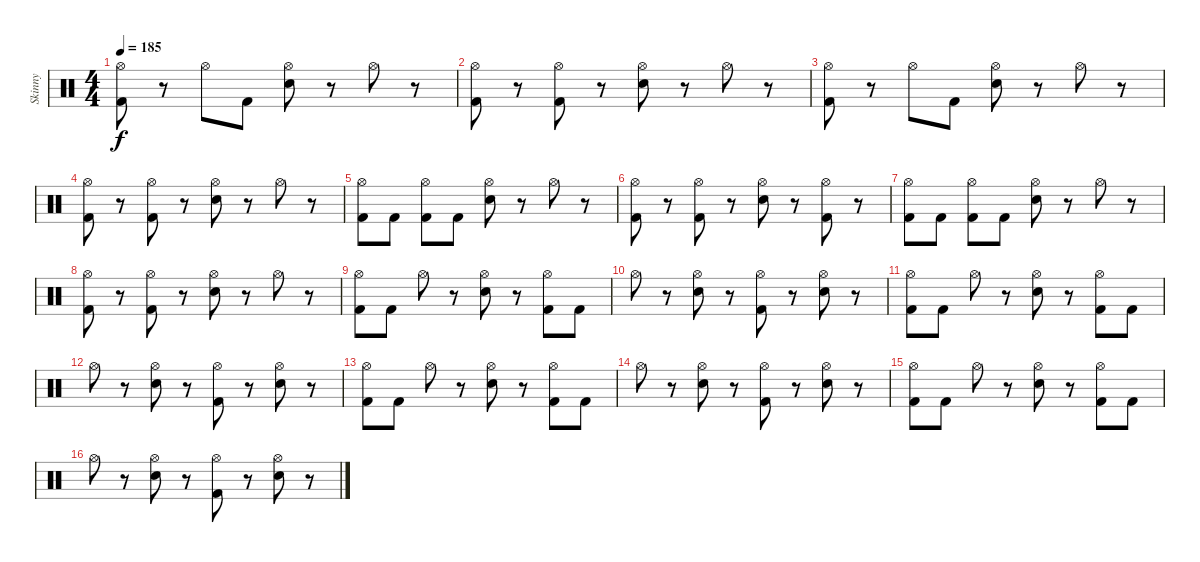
\track ("Skinny" "Skinny") {instrument percussion}
\staff {score}
\articulation defaults
\ts (4 4)
\tempo 185
\clef neutral
\ks c
("Hi-Hat (open)" "Kick (hit) 2").8{dy f} r.8 "Hi-Hat (open)".8 "Kick (hit) 2".8 ("Hi-Hat (open)" "Snare (hit) 2").8 r.8 "Hi-Hat (open)".8 r.8 |
("Hi-Hat (open)" "Kick (hit) 2").8 r.8 ("Hi-Hat (open)" "Kick (hit) 2").8 r.8 ("Hi-Hat (open)" "Snare (hit) 2").8 r.8 "Hi-Hat (open)".8 r.8 |
("Hi-Hat (open)" "Kick (hit) 2").8 r.8 "Hi-Hat (open)".8 "Kick (hit) 2".8 ("Hi-Hat (open)" "Snare (hit) 2").8 r.8 "Hi-Hat (open)".8 r.8 |
("Hi-Hat (open)" "Kick (hit) 2").8 r.8 ("Hi-Hat (open)" "Kick (hit) 2").8 r.8 ("Hi-Hat (open)" "Snare (hit) 2").8 r.8 "Hi-Hat (open)".8 r.8 |
("Hi-Hat (open)" "Kick (hit) 2").8 "Kick (hit) 2".8 ("Hi-Hat (open)" "Kick (hit) 2").8 "Kick (hit) 2".8 ("Hi-Hat (open)" "Snare (hit) 2").8 r.8 "Hi-Hat (open)".8 r.8 |
("Hi-Hat (open)" "Kick (hit) 2").8 r.8 ("Hi-Hat (open)" "Kick (hit) 2").8 r.8 ("Hi-Hat (open)" "Snare (hit) 2").8 r.8 ("Hi-Hat (open)" "Kick (hit) 2").8 r.8 |
("Hi-Hat (open)" "Kick (hit) 2").8 "Kick (hit) 2".8 ("Hi-Hat (open)" "Kick (hit) 2").8 "Kick (hit) 2".8 ("Hi-Hat (open)" "Snare (hit) 2").8 r.8 "Hi-Hat (open)".8 r.8 |
("Hi-Hat (open)" "Kick (hit) 2").8 r.8 ("Hi-Hat (open)" "Kick (hit) 2").8 r.8 ("Hi-Hat (open)" "Snare (hit) 2").8 r.8 "Hi-Hat (open)".8 r.8 |
("Hi-Hat (open)" "Kick (hit) 2").8 "Kick (hit) 2".8 "Hi-Hat (open)".8 r.8 ("Hi-Hat (open)" "Snare (hit) 2").8 r.8 ("Hi-Hat (open)" "Kick (hit) 2").8 "Kick (hit) 2".8 |
"Hi-Hat (open)".8 r.8 ("Hi-Hat (open)" "Snare (hit) 2").8 r.8 ("Hi-Hat (open)" "Kick (hit) 2").8 r.8 ("Hi-Hat (open)" "Snare (hit) 2").8 r.8 |
("Hi-Hat (open)" "Kick (hit) 2").8 "Kick (hit) 2".8 "Hi-Hat (open)".8 r.8 ("Hi-Hat (open)" "Snare (hit) 2").8 r.8 ("Hi-Hat (open)" "Kick (hit) 2").8 "Kick (hit) 2".8 |
"Hi-Hat (open)".8 r.8 ("Hi-Hat (open)" "Snare (hit) 2").8 r.8 ("Hi-Hat (open)" "Kick (hit) 2").8 r.8 ("Hi-Hat (open)" "Snare (hit) 2").8 r.8 |
("Hi-Hat (open)" "Kick (hit) 2").8 "Kick (hit) 2".8 "Hi-Hat (open)".8 r.8 ("Hi-Hat (open)" "Snare (hit) 2").8 r.8 ("Hi-Hat (open)" "Kick (hit) 2").8 "Kick (hit) 2".8 |
"Hi-Hat (open)".8 r.8 ("Hi-Hat (open)" "Snare (hit) 2").8 r.8 ("Hi-Hat (open)" "Kick (hit) 2").8 r.8 ("Hi-Hat (open)" "Snare (hit) 2").8 r.8 |
("Hi-Hat (open)" "Kick (hit) 2").8 "Kick (hit) 2".8 "Hi-Hat (open)".8 r.8 ("Hi-Hat (open)" "Snare (hit) 2").8 r.8 ("Hi-Hat (open)" "Kick (hit) 2").8 "Kick (hit) 2".8 |
"Hi-Hat (open)".8 r.8 ("Hi-Hat (open)" "Snare (hit) 2").8 r.8 ("Hi-Hat (open)" "Kick (hit) 2").8 r.8 ("Hi-Hat (open)" "Snare (hit) 2").8 r.8
